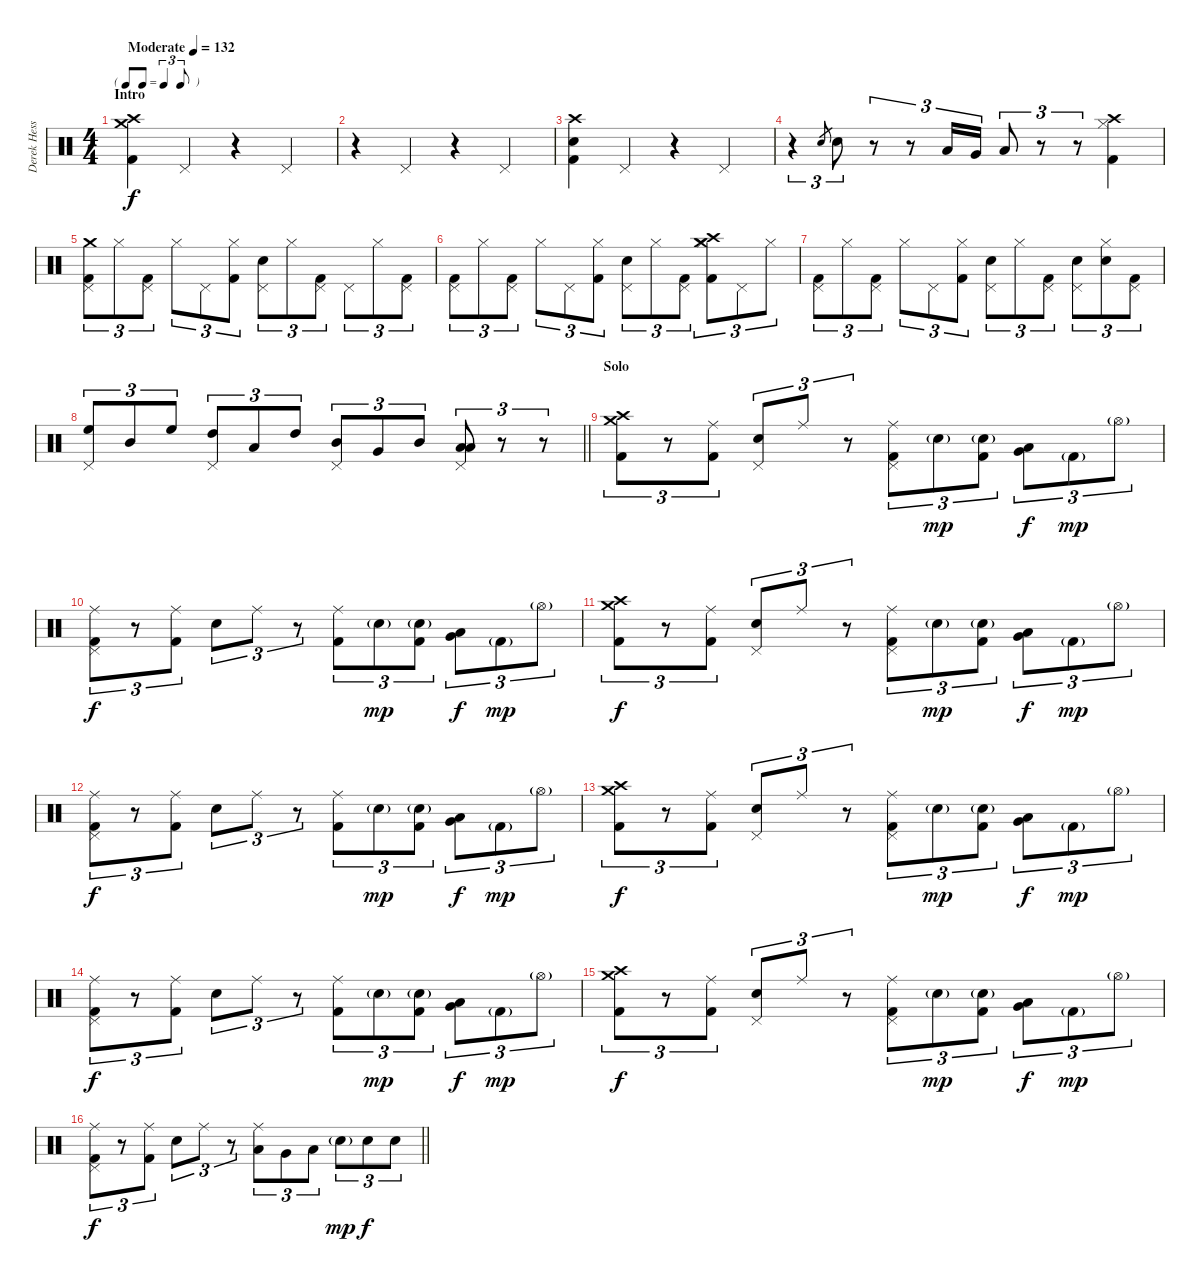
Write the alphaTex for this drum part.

\track ("Derek Hess (Drums and Percussion)" "Derek Hess") {instrument percussion}
\staff {score}
\articulation defaults
\ts (4 4)
\tf triplet8th
\section ("" "Intro")
\tempo (132 "Moderate")
\clef neutral
\ks c
("Crash medium (hit)" "Crash high (hit)" "Kick (hit) 2").4{dy f} "Pedal Hi-Hat (hit)".4 r.4 "Pedal Hi-Hat (hit)".4 |
r.4 "Pedal Hi-Hat (hit)".4 r.4 "Pedal Hi-Hat (hit)".4 |
("Crash high (hit)" "Snare (hit) 2" "Kick (hit) 2").4 "Pedal Hi-Hat (hit)".4 r.4 "Pedal Hi-Hat (hit)".4 |
r.4{tu (3 2)} "Snare (hit) 2".8{gr} "Snare (hit) 2".8{tu (3 2)} r.8{tu (3 2)} r.8{tu (3 2)} "Low Tom (hit)".16{tu (3 2)} "Very Low Tom (hit)".16{tu (3 2)} "Low Floor Tom (hit)".8{tu (3 2)} r.8{tu (3 2)} r.8{tu (3 2)} ("Crash high (hit)" "Hi-Hat (closed)" "Kick (hit) 2").4 |
("Crash medium (hit)" "Pedal Hi-Hat (hit)" "Kick (hit) 2").8{tu (3 2)} "Hi-Hat (closed)".8{tu (3 2)} ("Pedal Hi-Hat (hit)" "Kick (hit) 2").8{tu (3 2)} "Hi-Hat (closed)".8{tu (3 2)} "Pedal Hi-Hat (hit)".8{tu (3 2)} ("Hi-Hat (closed)" "Kick (hit) 2").8{tu (3 2)} ("Snare (hit) 2" "Pedal Hi-Hat (hit)").8{tu (3 2)} "Hi-Hat (closed)".8{tu (3 2)} ("Pedal Hi-Hat (hit)" "Kick (hit) 2").8{tu (3 2)} "Pedal Hi-Hat (hit)".8{tu (3 2)} "Hi-Hat (closed)".8{tu (3 2)} ("Pedal Hi-Hat (hit)" "Kick (hit) 2").8{tu (3 2)} |
("Pedal Hi-Hat (hit)" "Kick (hit) 2").8{tu (3 2)} "Hi-Hat (closed)".8{tu (3 2)} ("Pedal Hi-Hat (hit)" "Kick (hit) 2").8{tu (3 2)} "Hi-Hat (closed)".8{tu (3 2)} "Pedal Hi-Hat (hit)".8{tu (3 2)} ("Hi-Hat (closed)" "Kick (hit) 2").8{tu (3 2)} ("Snare (hit) 2" "Pedal Hi-Hat (hit)").8{tu (3 2)} "Hi-Hat (closed)".8{tu (3 2)} ("Pedal Hi-Hat (hit)" "Kick (hit) 2").8{tu (3 2)} ("Crash medium (hit)" "Crash high (hit)" "Hi-Hat (closed)" "Kick (hit) 2").8{tu (3 2)} "Pedal Hi-Hat (hit)".8{tu (3 2)} "Hi-Hat (closed)".8{tu (3 2)} |
("Pedal Hi-Hat (hit)" "Kick (hit) 2").8{tu (3 2)} "Hi-Hat (closed)".8{tu (3 2)} ("Pedal Hi-Hat (hit)" "Kick (hit) 2").8{tu (3 2)} "Hi-Hat (closed)".8{tu (3 2)} "Pedal Hi-Hat (hit)".8{tu (3 2)} ("Hi-Hat (closed)" "Kick (hit) 2").8{tu (3 2)} ("Snare (hit) 2" "Pedal Hi-Hat (hit)").8{tu (3 2)} "Hi-Hat (closed)".8{tu (3 2)} ("Pedal Hi-Hat (hit)" "Kick (hit) 2").8{tu (3 2)} ("Snare (hit) 2" "Pedal Hi-Hat (hit)").8{tu (3 2)} ("Snare (hit) 2" "Hi-Hat (closed)").8{tu (3 2)} ("Pedal Hi-Hat (hit)" "Kick (hit) 2").8{tu (3 2)} |
\barLineRight lightlight
("Pedal Hi-Hat (hit)" "High Floor Tom (hit)").8{tu (3 2)} "Mid Tom (hit)".8{tu (3 2)} "High Floor Tom (hit)".8{tu (3 2)} ("Pedal Hi-Hat (hit)" "High Tom (hit)").8{tu (3 2)} "Low Tom (hit)".8{tu (3 2)} "High Tom (hit)".8{tu (3 2)} ("Pedal Hi-Hat (hit)" "Mid Tom (hit)").8{tu (3 2)} "Very Low Tom (hit)".8{tu (3 2)} "Mid Tom (hit)".8{tu (3 2)} ("Pedal Hi-Hat (hit)" "Low Tom (hit)" "Low Floor Tom (hit)").8{tu (3 2)} r.8{tu (3 2)} r.8{tu (3 2)} |
\section ("" "Solo")
("Crash high (hit)" "Crash medium (hit)" "Kick (hit) 2").8{tu (3 2)} r.8{tu (3 2)} ("Ride (middle)" "Kick (hit) 2").8{tu (3 2)} ("Snare (hit) 2" "Pedal Hi-Hat (hit)").8{tu (3 2)} "Ride (middle)".8{tu (3 2)} r.8{tu (3 2)} ("Ride (middle)" "Pedal Hi-Hat (hit)" "Kick (hit) 2").8{tu (3 2)} "Snare (hit) 2"{g}.8{tu (3 2) dy mp} ("Snare (hit) 2"{g} "Kick (hit) 2").8{tu (3 2)} ("Low Floor Tom (hit)" "Very Low Tom (hit)").8{tu (3 2) dy f} "Kick (hit) 2"{g}.8{tu (3 2) dy mp} "Hi-Hat (open)"{g}.8{tu (3 2)} |
("Ride (middle)" "Pedal Hi-Hat (hit)" "Kick (hit) 2").8{tu (3 2) dy f} r.8{tu (3 2)} ("Ride (middle)" "Kick (hit) 2").8{tu (3 2)} "Snare (hit) 2".8{tu (3 2)} "Ride (middle)".8{tu (3 2)} r.8{tu (3 2)} ("Ride (middle)" "Kick (hit) 2").8{tu (3 2)} "Snare (hit) 2"{g}.8{tu (3 2) dy mp} ("Snare (hit) 2"{g} "Kick (hit) 2").8{tu (3 2)} ("Low Floor Tom (hit)" "Very Low Tom (hit)").8{tu (3 2) dy f} "Kick (hit) 2"{g}.8{tu (3 2) dy mp} "Hi-Hat (open)"{g}.8{tu (3 2)} |
("Crash high (hit)" "Crash medium (hit)" "Kick (hit) 2").8{tu (3 2) dy f} r.8{tu (3 2)} ("Ride (middle)" "Kick (hit) 2").8{tu (3 2)} ("Snare (hit) 2" "Pedal Hi-Hat (hit)").8{tu (3 2)} "Ride (middle)".8{tu (3 2)} r.8{tu (3 2)} ("Ride (middle)" "Pedal Hi-Hat (hit)" "Kick (hit) 2").8{tu (3 2)} "Snare (hit) 2"{g}.8{tu (3 2) dy mp} ("Snare (hit) 2"{g} "Kick (hit) 2").8{tu (3 2)} ("Low Floor Tom (hit)" "Very Low Tom (hit)").8{tu (3 2) dy f} "Kick (hit) 2"{g}.8{tu (3 2) dy mp} "Hi-Hat (open)"{g}.8{tu (3 2)} |
("Ride (middle)" "Pedal Hi-Hat (hit)" "Kick (hit) 2").8{tu (3 2) dy f} r.8{tu (3 2)} ("Ride (middle)" "Kick (hit) 2").8{tu (3 2)} "Snare (hit) 2".8{tu (3 2)} "Ride (middle)".8{tu (3 2)} r.8{tu (3 2)} ("Ride (middle)" "Kick (hit) 2").8{tu (3 2)} "Snare (hit) 2"{g}.8{tu (3 2) dy mp} ("Snare (hit) 2"{g} "Kick (hit) 2").8{tu (3 2)} ("Low Floor Tom (hit)" "Very Low Tom (hit)").8{tu (3 2) dy f} "Kick (hit) 2"{g}.8{tu (3 2) dy mp} "Hi-Hat (open)"{g}.8{tu (3 2)} |
("Crash high (hit)" "Crash medium (hit)" "Kick (hit) 2").8{tu (3 2) dy f} r.8{tu (3 2)} ("Ride (middle)" "Kick (hit) 2").8{tu (3 2)} ("Snare (hit) 2" "Pedal Hi-Hat (hit)").8{tu (3 2)} "Ride (middle)".8{tu (3 2)} r.8{tu (3 2)} ("Ride (middle)" "Pedal Hi-Hat (hit)" "Kick (hit) 2").8{tu (3 2)} "Snare (hit) 2"{g}.8{tu (3 2) dy mp} ("Snare (hit) 2"{g} "Kick (hit) 2").8{tu (3 2)} ("Low Floor Tom (hit)" "Very Low Tom (hit)").8{tu (3 2) dy f} "Kick (hit) 2"{g}.8{tu (3 2) dy mp} "Hi-Hat (open)"{g}.8{tu (3 2)} |
("Ride (middle)" "Pedal Hi-Hat (hit)" "Kick (hit) 2").8{tu (3 2) dy f} r.8{tu (3 2)} ("Ride (middle)" "Kick (hit) 2").8{tu (3 2)} "Snare (hit) 2".8{tu (3 2)} "Ride (middle)".8{tu (3 2)} r.8{tu (3 2)} ("Ride (middle)" "Kick (hit) 2").8{tu (3 2)} "Snare (hit) 2"{g}.8{tu (3 2) dy mp} ("Snare (hit) 2"{g} "Kick (hit) 2").8{tu (3 2)} ("Low Floor Tom (hit)" "Very Low Tom (hit)").8{tu (3 2) dy f} "Kick (hit) 2"{g}.8{tu (3 2) dy mp} "Hi-Hat (open)"{g}.8{tu (3 2)} |
("Crash high (hit)" "Crash medium (hit)" "Kick (hit) 2").8{tu (3 2) dy f} r.8{tu (3 2)} ("Ride (middle)" "Kick (hit) 2").8{tu (3 2)} ("Snare (hit) 2" "Pedal Hi-Hat (hit)").8{tu (3 2)} "Ride (middle)".8{tu (3 2)} r.8{tu (3 2)} ("Ride (middle)" "Pedal Hi-Hat (hit)" "Kick (hit) 2").8{tu (3 2)} "Snare (hit) 2"{g}.8{tu (3 2) dy mp} ("Snare (hit) 2"{g} "Kick (hit) 2").8{tu (3 2)} ("Low Floor Tom (hit)" "Very Low Tom (hit)").8{tu (3 2) dy f} "Kick (hit) 2"{g}.8{tu (3 2) dy mp} "Hi-Hat (open)"{g}.8{tu (3 2)} |
\barLineRight lightlight
("Ride (middle)" "Pedal Hi-Hat (hit)" "Kick (hit) 2").8{tu (3 2) dy f} r.8{tu (3 2)} ("Ride (middle)" "Kick (hit) 2").8{tu (3 2)} "Snare (hit) 2".8{tu (3 2)} "Ride (middle)".8{tu (3 2)} r.8{tu (3 2)} ("Ride (middle)" "Low Tom (hit)").8{tu (3 2)} "Very Low Tom (hit)".8{tu (3 2)} "Low Floor Tom (hit)".8{tu (3 2)} "Snare (hit) 2"{g}.8{tu (3 2) dy mp} "Snare (hit) 2".8{tu (3 2) dy f} "Snare (hit) 2".8{tu (3 2)}
